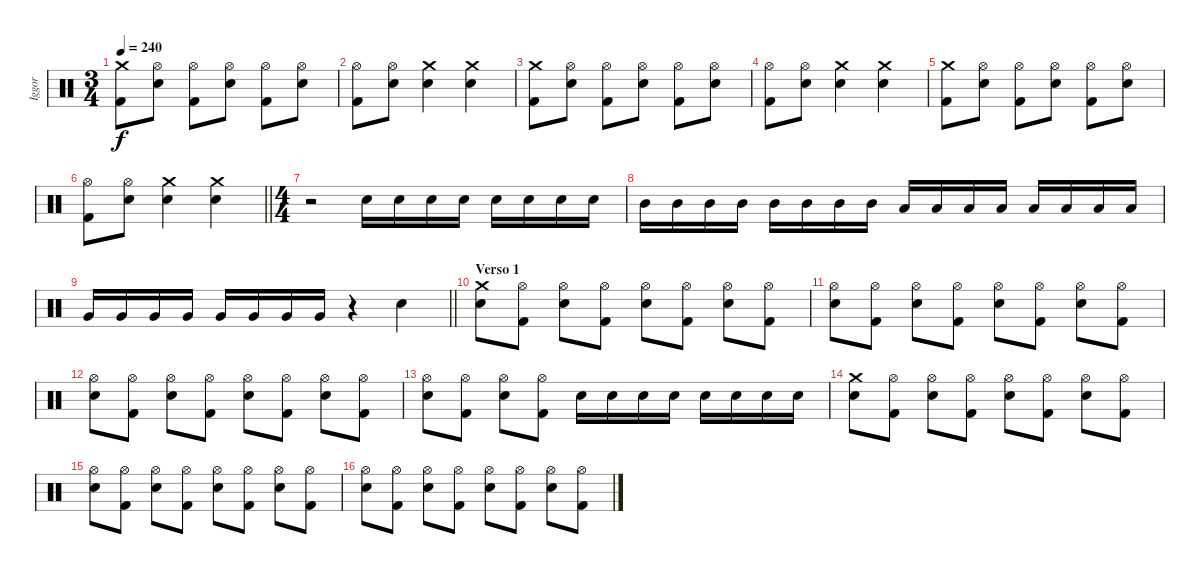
\track ("Iggor" "Iggor") {instrument percussion}
\staff {score}
\articulation defaults
\ts (3 4)
\tempo 240
\clef neutral
\ks c
("Crash medium (hit)" "Kick (hit) 2").8{dy f} ("Hi-Hat (open)" "Snare (hit) 2").8 ("Hi-Hat (open)" "Kick (hit) 2").8 ("Hi-Hat (open)" "Snare (hit) 2").8 ("Hi-Hat (open)" "Kick (hit) 2").8 ("Hi-Hat (open)" "Snare (hit) 2").8 |
("Hi-Hat (open)" "Kick (hit) 2").8 ("Hi-Hat (open)" "Snare (hit) 2").8 ("Crash medium (hit)" "Snare (hit) 2").4 ("Crash medium (hit)" "Snare (hit) 2").4 |
("Crash medium (hit)" "Kick (hit) 2").8 ("Hi-Hat (open)" "Snare (hit) 2").8 ("Hi-Hat (open)" "Kick (hit) 2").8 ("Hi-Hat (open)" "Snare (hit) 2").8 ("Hi-Hat (open)" "Kick (hit) 2").8 ("Hi-Hat (open)" "Snare (hit) 2").8 |
("Hi-Hat (open)" "Kick (hit) 2").8 ("Hi-Hat (open)" "Snare (hit) 2").8 ("Crash medium (hit)" "Snare (hit) 2").4 ("Crash medium (hit)" "Snare (hit) 2").4 |
("Crash medium (hit)" "Kick (hit) 2").8 ("Hi-Hat (open)" "Snare (hit) 2").8 ("Hi-Hat (open)" "Kick (hit) 2").8 ("Hi-Hat (open)" "Snare (hit) 2").8 ("Hi-Hat (open)" "Kick (hit) 2").8 ("Hi-Hat (open)" "Snare (hit) 2").8 |
\barLineRight lightlight
("Hi-Hat (open)" "Kick (hit) 2").8 ("Hi-Hat (open)" "Snare (hit) 2").8 ("Crash medium (hit)" "Snare (hit) 2").4 ("Crash medium (hit)" "Snare (hit) 2").4 |
\ts (4 4)
r.2 "Snare (hit) 2".16 "Snare (hit) 2".16 "Snare (hit) 2".16 "Snare (hit) 2".16 "Snare (hit) 2".16 "Snare (hit) 2".16 "Snare (hit) 2".16 "Snare (hit) 2".16 |
"Mid Tom (hit)".16 "Mid Tom (hit)".16 "Mid Tom (hit)".16 "Mid Tom (hit)".16 "Mid Tom (hit)".16 "Mid Tom (hit)".16 "Mid Tom (hit)".16 "Mid Tom (hit)".16 "Low Tom (hit)".16 "Low Tom (hit)".16 "Low Tom (hit)".16 "Low Tom (hit)".16 "Low Tom (hit)".16 "Low Tom (hit)".16 "Low Tom (hit)".16 "Low Tom (hit)".16 |
\barLineRight lightlight "Very Low Tom (hit)".16 "Very Low Tom (hit)".16 "Very Low Tom (hit)".16 "Very Low Tom (hit)".16 "Very Low Tom (hit)".16 "Very Low Tom (hit)".16 "Very Low Tom (hit)".16 "Very Low Tom (hit)".16
r.4 "Snare (hit) 2".4 |
\section ("" "Verso 1")
("Crash medium (hit)" "Snare (hit) 2").8 ("Hi-Hat (open)" "Kick (hit) 2").8 ("Hi-Hat (open)" "Snare (hit) 2").8 ("Hi-Hat (open)" "Kick (hit) 2").8 ("Hi-Hat (open)" "Snare (hit) 2").8 ("Hi-Hat (open)" "Kick (hit) 2").8 ("Hi-Hat (open)" "Snare (hit) 2").8 ("Hi-Hat (open)" "Kick (hit) 2").8 |
("Hi-Hat (open)" "Snare (hit) 2").8 ("Hi-Hat (open)" "Kick (hit) 2").8 ("Hi-Hat (open)" "Snare (hit) 2").8 ("Hi-Hat (open)" "Kick (hit) 2").8 ("Hi-Hat (open)" "Snare (hit) 2").8 ("Hi-Hat (open)" "Kick (hit) 2").8 ("Hi-Hat (open)" "Snare (hit) 2").8 ("Hi-Hat (open)" "Kick (hit) 2").8 |
("Hi-Hat (open)" "Snare (hit) 2").8 ("Hi-Hat (open)" "Kick (hit) 2").8 ("Hi-Hat (open)" "Snare (hit) 2").8 ("Hi-Hat (open)" "Kick (hit) 2").8 ("Hi-Hat (open)" "Snare (hit) 2").8 ("Hi-Hat (open)" "Kick (hit) 2").8 ("Hi-Hat (open)" "Snare (hit) 2").8 ("Hi-Hat (open)" "Kick (hit) 2").8 |
("Hi-Hat (open)" "Snare (hit) 2").8 ("Hi-Hat (open)" "Kick (hit) 2").8 ("Hi-Hat (open)" "Snare (hit) 2").8 ("Hi-Hat (open)" "Kick (hit) 2").8 "Snare (hit) 2".16 "Snare (hit) 2".16 "Snare (hit) 2".16 "Snare (hit) 2".16 "Snare (hit) 2".16 "Snare (hit) 2".16 "Snare (hit) 2".16 "Snare (hit) 2".16 |
("Crash medium (hit)" "Snare (hit) 2").8 ("Hi-Hat (open)" "Kick (hit) 2").8 ("Hi-Hat (open)" "Snare (hit) 2").8 ("Hi-Hat (open)" "Kick (hit) 2").8 ("Hi-Hat (open)" "Snare (hit) 2").8 ("Hi-Hat (open)" "Kick (hit) 2").8 ("Hi-Hat (open)" "Snare (hit) 2").8 ("Hi-Hat (open)" "Kick (hit) 2").8 |
("Hi-Hat (open)" "Snare (hit) 2").8 ("Hi-Hat (open)" "Kick (hit) 2").8 ("Hi-Hat (open)" "Snare (hit) 2").8 ("Hi-Hat (open)" "Kick (hit) 2").8 ("Hi-Hat (open)" "Snare (hit) 2").8 ("Hi-Hat (open)" "Kick (hit) 2").8 ("Hi-Hat (open)" "Snare (hit) 2").8 ("Hi-Hat (open)" "Kick (hit) 2").8 |
("Hi-Hat (open)" "Snare (hit) 2").8 ("Hi-Hat (open)" "Kick (hit) 2").8 ("Hi-Hat (open)" "Snare (hit) 2").8 ("Hi-Hat (open)" "Kick (hit) 2").8 ("Hi-Hat (open)" "Snare (hit) 2").8 ("Hi-Hat (open)" "Kick (hit) 2").8 ("Hi-Hat (open)" "Snare (hit) 2").8 ("Hi-Hat (open)" "Kick (hit) 2").8
